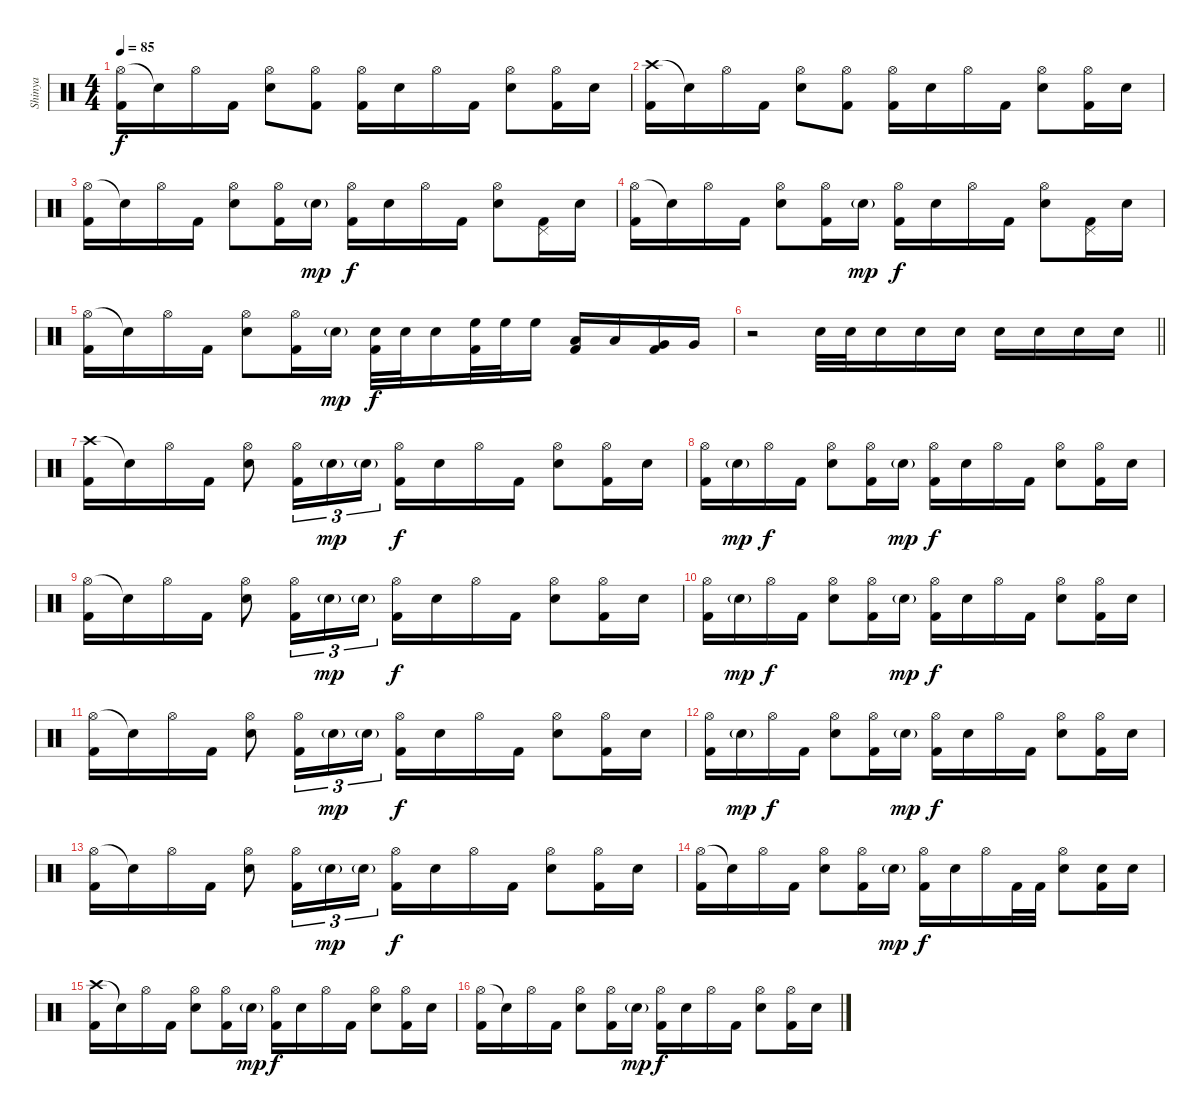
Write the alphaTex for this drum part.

\track ("Shinya" "Shinya") {instrument percussion}
\staff {score}
\articulation defaults
\ts (4 4)
\tempo 85
\clef neutral
\ks c
("Hi-Hat (open)" "Kick (hit) 2").16{dy f} "Snare (hit)"{t}.16 "Hi-Hat (open)".16 "Kick (hit) 2".16 ("Hi-Hat (open)" "Electric Snare (hit)").8 ("Hi-Hat (open)" "Kick (hit) 2").8 ("Hi-Hat (open)" "Kick (hit) 2").16 "Electric Snare (hit)".16 "Hi-Hat (open)".16 "Kick (hit) 2".16 ("Hi-Hat (open)" "Electric Snare (hit)").8 ("Hi-Hat (open)" "Kick (hit) 2").16 "Electric Snare (hit)".16 |
("Crash high (hit)" "Kick (hit) 2").16 "Snare (hit)"{t}.16 "Hi-Hat (open)".16 "Kick (hit) 2".16 ("Hi-Hat (open)" "Electric Snare (hit)").8 ("Hi-Hat (open)" "Kick (hit) 2").8 ("Hi-Hat (open)" "Kick (hit) 2").16 "Electric Snare (hit)".16 "Hi-Hat (open)".16 "Kick (hit) 2".16 ("Hi-Hat (open)" "Electric Snare (hit)").8 ("Hi-Hat (open)" "Kick (hit) 2").16 "Electric Snare (hit)".16 |
("Hi-Hat (open)" "Kick (hit) 2").16 "Snare (hit)"{t}.16 "Hi-Hat (open)".16 "Kick (hit) 2".16 ("Hi-Hat (open)" "Electric Snare (hit)").8 ("Hi-Hat (open)" "Kick (hit) 2").16 "Electric Snare (hit)"{g}.16{dy mp} ("Hi-Hat (open)" "Kick (hit) 2").16{dy f} "Electric Snare (hit)".16 "Hi-Hat (open)".16 "Kick (hit) 2".16 ("Hi-Hat (open)" "Electric Snare (hit)").8 ("Pedal Hi-Hat (hit)" "Kick (hit) 2").16 "Electric Snare (hit)".16 |
("Hi-Hat (open)" "Kick (hit) 2").16 "Snare (hit)"{t}.16 "Hi-Hat (open)".16 "Kick (hit) 2".16 ("Hi-Hat (open)" "Electric Snare (hit)").8 ("Hi-Hat (open)" "Kick (hit) 2").16 "Electric Snare (hit)"{g}.16{dy mp} ("Hi-Hat (open)" "Kick (hit) 2").16{dy f} "Electric Snare (hit)".16 "Hi-Hat (open)".16 "Kick (hit) 2".16 ("Hi-Hat (open)" "Electric Snare (hit)").8 ("Pedal Hi-Hat (hit)" "Kick (hit) 2").16 "Electric Snare (hit)".16 |
("Hi-Hat (open)" "Kick (hit) 2").16 "Snare (hit)"{t}.16 "Hi-Hat (open)".16 "Kick (hit) 2".16 ("Hi-Hat (open)" "Electric Snare (hit)").8 ("Hi-Hat (open)" "Kick (hit) 2").16 "Electric Snare (hit)"{g}.16{dy mp} ("Electric Snare (hit)" "Kick (hit) 2").32{dy f} "Electric Snare (hit)".32 "Electric Snare (hit)".16 ("High Floor Tom (hit)" "Kick (hit) 2").32 "High Floor Tom (hit)".32 "High Floor Tom (hit)".16 ("Low Tom (hit)" "Kick (hit) 2").16 "Low Tom (hit)".16 ("Very Low Tom (hit)" "Kick (hit) 2").16 "Very Low Tom (hit)".16 |
\barLineRight lightlight
r.2 "Electric Snare (hit)".32 "Electric Snare (hit)".32 "Electric Snare (hit)".16 "Electric Snare (hit)".16 "Electric Snare (hit)".16 "Electric Snare (hit)".16 "Electric Snare (hit)".16 "Electric Snare (hit)".16 "Electric Snare (hit)".16 |
("Crash high (hit)" "Kick (hit) 2").16 "Snare (hit)"{t}.16 "Hi-Hat (open)".16 "Kick (hit) 2".16 ("Hi-Hat (open)" "Electric Snare (hit)").8 ("Hi-Hat (open)" "Kick (hit) 2").16{tu (3 2)} "Electric Snare (hit)"{g}.16{tu (3 2) dy mp} "Electric Snare (hit)"{g}.16{tu (3 2)} ("Hi-Hat (open)" "Kick (hit) 2").16{dy f} "Electric Snare (hit)".16 "Hi-Hat (open)".16 "Kick (hit) 2".16 ("Hi-Hat (open)" "Electric Snare (hit)").8 ("Hi-Hat (open)" "Kick (hit) 2").16 "Electric Snare (hit)".16 |
("Hi-Hat (open)" "Kick (hit) 2").16 "Electric Snare (hit)"{g}.16{dy mp} "Hi-Hat (open)".16{dy f} "Kick (hit) 2".16 ("Hi-Hat (open)" "Electric Snare (hit)").8 ("Hi-Hat (open)" "Kick (hit) 2").16 "Electric Snare (hit)"{g}.16{dy mp} ("Hi-Hat (open)" "Kick (hit) 2").16{dy f} "Electric Snare (hit)".16 "Hi-Hat (open)".16 "Kick (hit) 2".16 ("Hi-Hat (open)" "Electric Snare (hit)").8 ("Hi-Hat (open)" "Kick (hit) 2").16 "Electric Snare (hit)".16 |
("Hi-Hat (open)" "Kick (hit) 2").16 "Snare (hit)"{t}.16 "Hi-Hat (open)".16 "Kick (hit) 2".16 ("Hi-Hat (open)" "Electric Snare (hit)").8 ("Hi-Hat (open)" "Kick (hit) 2").16{tu (3 2)} "Electric Snare (hit)"{g}.16{tu (3 2) dy mp} "Electric Snare (hit)"{g}.16{tu (3 2)} ("Hi-Hat (open)" "Kick (hit) 2").16{dy f} "Electric Snare (hit)".16 "Hi-Hat (open)".16 "Kick (hit) 2".16 ("Hi-Hat (open)" "Electric Snare (hit)").8 ("Hi-Hat (open)" "Kick (hit) 2").16 "Electric Snare (hit)".16 |
("Hi-Hat (open)" "Kick (hit) 2").16 "Electric Snare (hit)"{g}.16{dy mp} "Hi-Hat (open)".16{dy f} "Kick (hit) 2".16 ("Hi-Hat (open)" "Electric Snare (hit)").8 ("Hi-Hat (open)" "Kick (hit) 2").16 "Electric Snare (hit)"{g}.16{dy mp} ("Hi-Hat (open)" "Kick (hit) 2").16{dy f} "Electric Snare (hit)".16 "Hi-Hat (open)".16 "Kick (hit) 2".16 ("Hi-Hat (open)" "Electric Snare (hit)").8 ("Hi-Hat (open)" "Kick (hit) 2").16 "Electric Snare (hit)".16 |
("Hi-Hat (open)" "Kick (hit) 2").16 "Snare (hit)"{t}.16 "Hi-Hat (open)".16 "Kick (hit) 2".16 ("Hi-Hat (open)" "Electric Snare (hit)").8 ("Hi-Hat (open)" "Kick (hit) 2").16{tu (3 2)} "Electric Snare (hit)"{g}.16{tu (3 2) dy mp} "Electric Snare (hit)"{g}.16{tu (3 2)} ("Hi-Hat (open)" "Kick (hit) 2").16{dy f} "Electric Snare (hit)".16 "Hi-Hat (open)".16 "Kick (hit) 2".16 ("Hi-Hat (open)" "Electric Snare (hit)").8 ("Hi-Hat (open)" "Kick (hit) 2").16 "Electric Snare (hit)".16 |
("Hi-Hat (open)" "Kick (hit) 2").16 "Electric Snare (hit)"{g}.16{dy mp} "Hi-Hat (open)".16{dy f} "Kick (hit) 2".16 ("Hi-Hat (open)" "Electric Snare (hit)").8 ("Hi-Hat (open)" "Kick (hit) 2").16 "Electric Snare (hit)"{g}.16{dy mp} ("Hi-Hat (open)" "Kick (hit) 2").16{dy f} "Electric Snare (hit)".16 "Hi-Hat (open)".16 "Kick (hit) 2".16 ("Hi-Hat (open)" "Electric Snare (hit)").8 ("Hi-Hat (open)" "Kick (hit) 2").16 "Electric Snare (hit)".16 |
("Hi-Hat (open)" "Kick (hit) 2").16 "Snare (hit)"{t}.16 "Hi-Hat (open)".16 "Kick (hit) 2".16 ("Hi-Hat (open)" "Electric Snare (hit)").8 ("Hi-Hat (open)" "Kick (hit) 2").16{tu (3 2)} "Electric Snare (hit)"{g}.16{tu (3 2) dy mp} "Electric Snare (hit)"{g}.16{tu (3 2)} ("Hi-Hat (open)" "Kick (hit) 2").16{dy f} "Electric Snare (hit)".16 "Hi-Hat (open)".16 "Kick (hit) 2".16 ("Hi-Hat (open)" "Electric Snare (hit)").8 ("Hi-Hat (open)" "Kick (hit) 2").16 "Electric Snare (hit)".16 |
("Hi-Hat (open)" "Kick (hit) 2").16 "Snare (hit)"{t}.16 "Hi-Hat (open)".16 "Kick (hit) 2".16 ("Hi-Hat (open)" "Electric Snare (hit)").8 ("Hi-Hat (open)" "Kick (hit) 2").16 "Electric Snare (hit)"{g}.16{dy mp} ("Hi-Hat (open)" "Kick (hit) 2").16{dy f} "Electric Snare (hit)".16 "Hi-Hat (open)".16 "Kick (hit) 2".32 "Kick (hit) 2".32 ("Hi-Hat (open)" "Electric Snare (hit)").8 ("Electric Snare (hit)" "Kick (hit) 2").16 "Electric Snare (hit)".16 |
("Crash high (hit)" "Kick (hit) 2").16 "Snare (hit)"{t}.16 "Hi-Hat (open)".16 "Kick (hit) 2".16 ("Hi-Hat (open)" "Electric Snare (hit)").8 ("Hi-Hat (open)" "Kick (hit) 2").16 "Electric Snare (hit)"{g}.16{dy mp} ("Hi-Hat (open)" "Kick (hit) 2").16{dy f} "Electric Snare (hit)".16 "Hi-Hat (open)".16 "Kick (hit) 2".16 ("Hi-Hat (open)" "Electric Snare (hit)").8 ("Hi-Hat (open)" "Kick (hit) 2").16 "Electric Snare (hit)".16 |
("Hi-Hat (open)" "Kick (hit) 2").16 "Snare (hit)"{t}.16 "Hi-Hat (open)".16 "Kick (hit) 2".16 ("Hi-Hat (open)" "Electric Snare (hit)").8 ("Hi-Hat (open)" "Kick (hit) 2").16 "Electric Snare (hit)"{g}.16{dy mp} ("Hi-Hat (open)" "Kick (hit) 2").16{dy f} "Electric Snare (hit)".16 "Hi-Hat (open)".16 "Kick (hit) 2".16 ("Hi-Hat (open)" "Electric Snare (hit)").8 ("Hi-Hat (open)" "Kick (hit) 2").16 "Electric Snare (hit)".16
